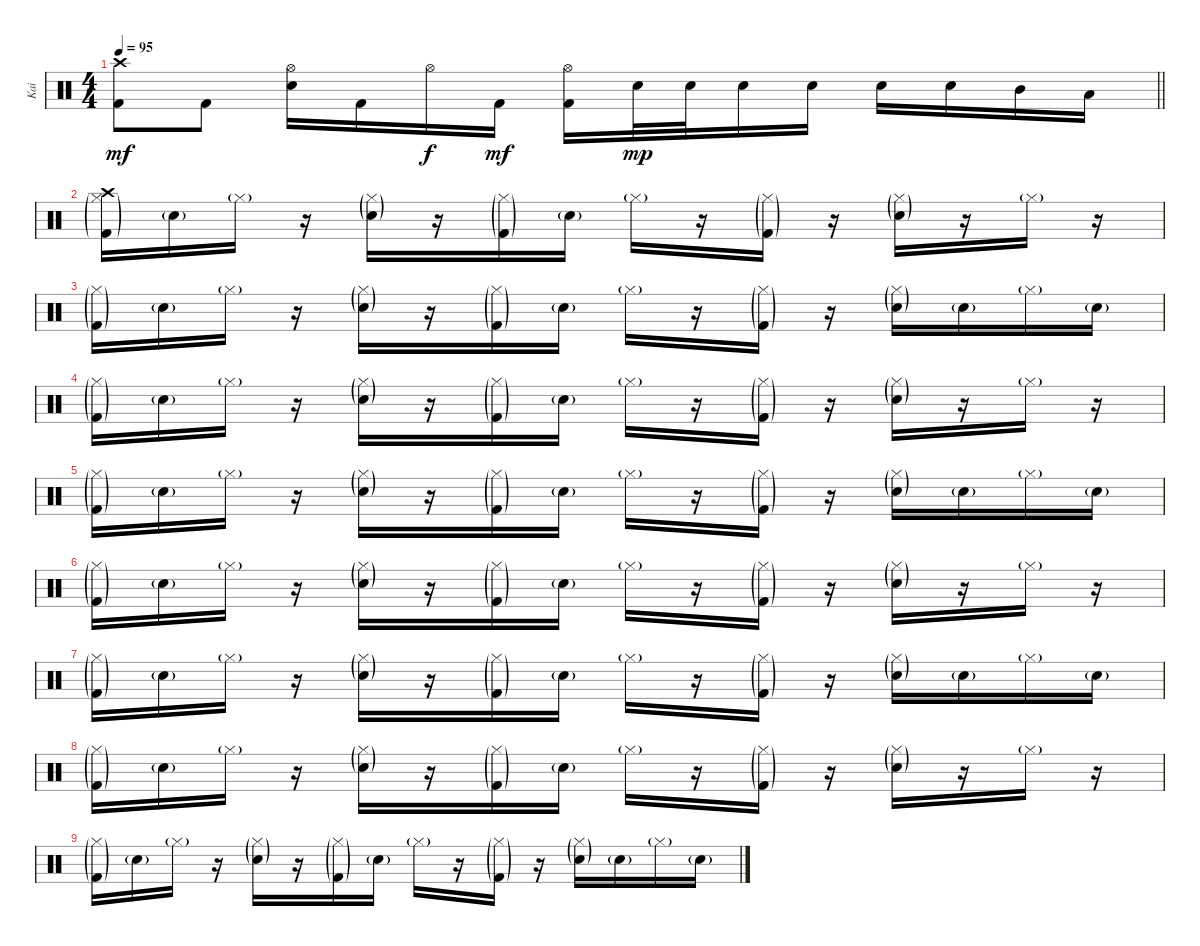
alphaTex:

\track ("Kai" "Kai") {instrument percussion}
\staff {score}
\articulation defaults
\ts (4 4)
\tempo 95
\clef neutral
\barLineRight lightlight
\ks c
("Crash high (hit)" "Kick (hit) 2").8{dy mf} "Kick (hit) 2".8 ("Hi-Hat (open)" "Electric Snare (hit)").16 "Kick (hit) 2".16 "Hi-Hat (open)".16{dy f} "Kick (hit) 2".16{dy mf} ("Hi-Hat (open)" "Kick (hit) 2").16 "Electric Snare (hit)".32{dy mp} "Electric Snare (hit)".32 "Electric Snare (hit)".16 "Electric Snare (hit)".16 "Electric Snare (hit)".16 "Electric Snare (hit)".16 "Mid Tom (hit)".16 "Low Tom (hit)".16 |
("Crash high (hit)" "Hi-Hat (closed)"{g} "Kick (hit) 2"{g}).16 "Electric Snare (hit)"{g}.16 "Hi-Hat (closed)"{g}.16 r.16 ("Hi-Hat (closed)"{g} "Electric Snare (hit)"{g}).16 r.16 ("Hi-Hat (closed)"{g} "Kick (hit) 2"{g}).16 "Electric Snare (hit)"{g}.16 "Hi-Hat (closed)"{g}.16 r.16 ("Hi-Hat (closed)"{g} "Kick (hit) 2"{g}).16 r.16 ("Hi-Hat (closed)"{g} "Electric Snare (hit)"{g}).16 r.16 "Hi-Hat (closed)"{g}.16 r.16 |
("Hi-Hat (closed)"{g} "Kick (hit) 2"{g}).16 "Electric Snare (hit)"{g}.16 "Hi-Hat (closed)"{g}.16 r.16 ("Hi-Hat (closed)"{g} "Electric Snare (hit)"{g}).16 r.16 ("Hi-Hat (closed)"{g} "Kick (hit) 2"{g}).16 "Electric Snare (hit)"{g}.16 "Hi-Hat (closed)"{g}.16 r.16 ("Hi-Hat (closed)"{g} "Kick (hit) 2"{g}).16 r.16 ("Hi-Hat (closed)"{g} "Electric Snare (hit)"{g}).16 "Electric Snare (hit)"{g}.16 "Hi-Hat (closed)"{g}.16 "Electric Snare (hit)"{g}.16 |
("Hi-Hat (closed)"{g} "Kick (hit) 2"{g}).16 "Electric Snare (hit)"{g}.16 "Hi-Hat (closed)"{g}.16 r.16 ("Hi-Hat (closed)"{g} "Electric Snare (hit)"{g}).16 r.16 ("Hi-Hat (closed)"{g} "Kick (hit) 2"{g}).16 "Electric Snare (hit)"{g}.16 "Hi-Hat (closed)"{g}.16 r.16 ("Hi-Hat (closed)"{g} "Kick (hit) 2"{g}).16 r.16 ("Hi-Hat (closed)"{g} "Electric Snare (hit)"{g}).16 r.16 "Hi-Hat (closed)"{g}.16 r.16 |
("Hi-Hat (closed)"{g} "Kick (hit) 2"{g}).16 "Electric Snare (hit)"{g}.16 "Hi-Hat (closed)"{g}.16 r.16 ("Hi-Hat (closed)"{g} "Electric Snare (hit)"{g}).16 r.16 ("Hi-Hat (closed)"{g} "Kick (hit) 2"{g}).16 "Electric Snare (hit)"{g}.16 "Hi-Hat (closed)"{g}.16 r.16 ("Hi-Hat (closed)"{g} "Kick (hit) 2"{g}).16 r.16 ("Hi-Hat (closed)"{g} "Electric Snare (hit)"{g}).16 "Electric Snare (hit)"{g}.16 "Hi-Hat (closed)"{g}.16 "Electric Snare (hit)"{g}.16 |
("Hi-Hat (closed)"{g} "Kick (hit) 2"{g}).16 "Electric Snare (hit)"{g}.16 "Hi-Hat (closed)"{g}.16 r.16 ("Hi-Hat (closed)"{g} "Electric Snare (hit)"{g}).16 r.16 ("Hi-Hat (closed)"{g} "Kick (hit) 2"{g}).16 "Electric Snare (hit)"{g}.16 "Hi-Hat (closed)"{g}.16 r.16 ("Hi-Hat (closed)"{g} "Kick (hit) 2"{g}).16 r.16 ("Hi-Hat (closed)"{g} "Electric Snare (hit)"{g}).16 r.16 "Hi-Hat (closed)"{g}.16 r.16 |
("Hi-Hat (closed)"{g} "Kick (hit) 2"{g}).16 "Electric Snare (hit)"{g}.16 "Hi-Hat (closed)"{g}.16 r.16 ("Hi-Hat (closed)"{g} "Electric Snare (hit)"{g}).16 r.16 ("Hi-Hat (closed)"{g} "Kick (hit) 2"{g}).16 "Electric Snare (hit)"{g}.16 "Hi-Hat (closed)"{g}.16 r.16 ("Hi-Hat (closed)"{g} "Kick (hit) 2"{g}).16 r.16 ("Hi-Hat (closed)"{g} "Electric Snare (hit)"{g}).16 "Electric Snare (hit)"{g}.16 "Hi-Hat (closed)"{g}.16 "Electric Snare (hit)"{g}.16 |
("Hi-Hat (closed)"{g} "Kick (hit) 2"{g}).16 "Electric Snare (hit)"{g}.16 "Hi-Hat (closed)"{g}.16 r.16 ("Hi-Hat (closed)"{g} "Electric Snare (hit)"{g}).16 r.16 ("Hi-Hat (closed)"{g} "Kick (hit) 2"{g}).16 "Electric Snare (hit)"{g}.16 "Hi-Hat (closed)"{g}.16 r.16 ("Hi-Hat (closed)"{g} "Kick (hit) 2"{g}).16 r.16 ("Hi-Hat (closed)"{g} "Electric Snare (hit)"{g}).16 r.16 "Hi-Hat (closed)"{g}.16 r.16 |
("Hi-Hat (closed)"{g} "Kick (hit) 2"{g}).16 "Electric Snare (hit)"{g}.16 "Hi-Hat (closed)"{g}.16 r.16 ("Hi-Hat (closed)"{g} "Electric Snare (hit)"{g}).16 r.16 ("Hi-Hat (closed)"{g} "Kick (hit) 2"{g}).16 "Electric Snare (hit)"{g}.16 "Hi-Hat (closed)"{g}.16 r.16 ("Hi-Hat (closed)"{g} "Kick (hit) 2"{g}).16 r.16 ("Hi-Hat (closed)"{g} "Electric Snare (hit)"{g}).16 "Electric Snare (hit)"{g}.16 "Hi-Hat (closed)"{g}.16 "Electric Snare (hit)"{g}.16
